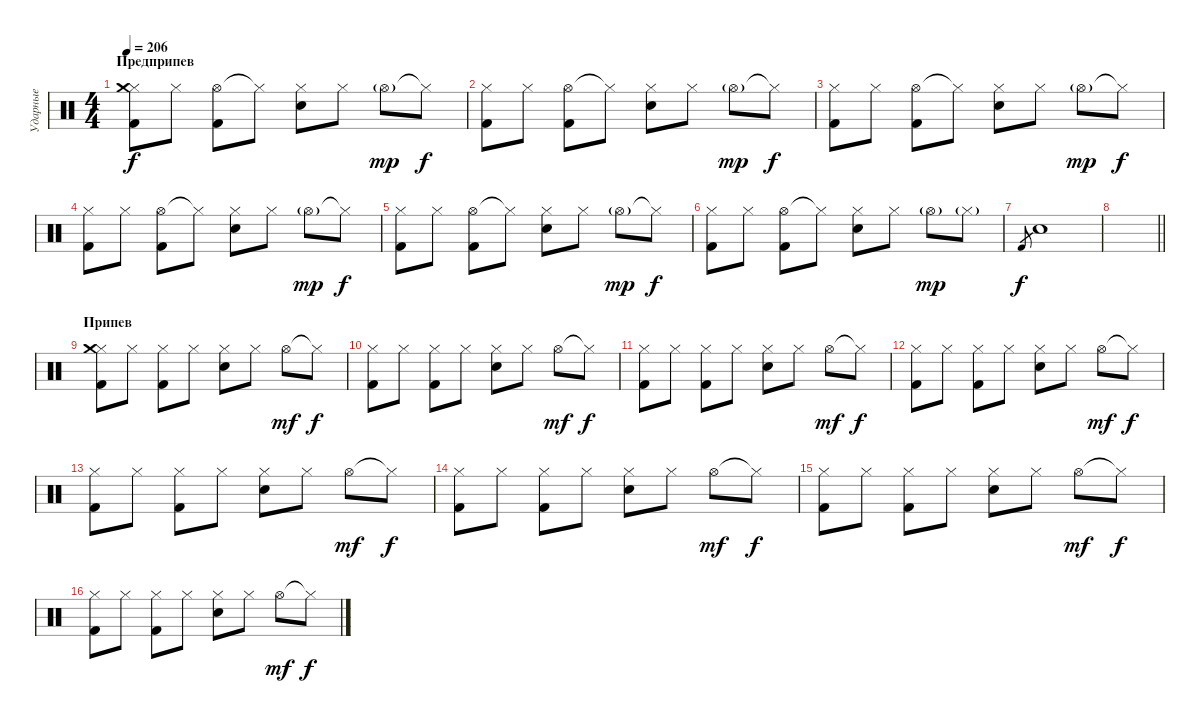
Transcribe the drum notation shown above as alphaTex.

\track ("Ударные" "Ударные") {instrument percussion}
\staff {score}
\articulation defaults
\ts (4 4)
\section ("" "Предприпев")
\tempo 206
\clef neutral
\ks c
("Hi-Hat (closed)" "Kick (hit) 2" "Crash medium (hit)").8{dy f} "Hi-Hat (closed)".8 ("Hi-Hat (open)" "Kick (hit) 2").8 "Hi-Hat (closed)"{t}.8 ("Hi-Hat (closed)" "Electric Snare (hit)").8 "Hi-Hat (closed)".8 "Hi-Hat (open)"{g}.8{dy mp} "Hi-Hat (closed)"{t}.8{dy f} |
("Hi-Hat (closed)" "Kick (hit) 2").8 "Hi-Hat (closed)".8 ("Hi-Hat (open)" "Kick (hit) 2").8 "Hi-Hat (closed)"{t}.8 ("Hi-Hat (closed)" "Electric Snare (hit)").8 "Hi-Hat (closed)".8 "Hi-Hat (open)"{g}.8{dy mp} "Hi-Hat (closed)"{t}.8{dy f} |
("Hi-Hat (closed)" "Kick (hit) 2").8 "Hi-Hat (closed)".8 ("Hi-Hat (open)" "Kick (hit) 2").8 "Hi-Hat (closed)"{t}.8 ("Hi-Hat (closed)" "Electric Snare (hit)").8 "Hi-Hat (closed)".8 "Hi-Hat (open)"{g}.8{dy mp} "Hi-Hat (closed)"{t}.8{dy f} |
("Hi-Hat (closed)" "Kick (hit) 2").8 "Hi-Hat (closed)".8 ("Hi-Hat (open)" "Kick (hit) 2").8 "Hi-Hat (closed)"{t}.8 ("Hi-Hat (closed)" "Electric Snare (hit)").8 "Hi-Hat (closed)".8 "Hi-Hat (open)"{g}.8{dy mp} "Hi-Hat (closed)"{t}.8{dy f} |
("Hi-Hat (closed)" "Kick (hit) 2").8 "Hi-Hat (closed)".8 ("Hi-Hat (open)" "Kick (hit) 2").8 "Hi-Hat (closed)"{t}.8 ("Hi-Hat (closed)" "Electric Snare (hit)").8 "Hi-Hat (closed)".8 "Hi-Hat (open)"{g}.8{dy mp} "Hi-Hat (closed)"{t}.8{dy f} |
("Hi-Hat (closed)" "Kick (hit) 2").8 "Hi-Hat (closed)".8 ("Hi-Hat (open)" "Kick (hit) 2").8 "Hi-Hat (closed)"{t}.8 ("Hi-Hat (closed)" "Electric Snare (hit)").8 "Hi-Hat (closed)".8 "Hi-Hat (open)"{g}.8{dy mp} "Hi-Hat (closed)"{g}.8 |
"Kick (hit) 2".8{gr dy f} "Electric Snare (hit)".1 |
\barLineRight lightlight
|
\section ("" "Припев")
("Hi-Hat (closed)" "Kick (hit) 2" "Crash medium (hit)").8 "Hi-Hat (closed)".8 ("Hi-Hat (closed)" "Kick (hit) 2").8 "Hi-Hat (closed)".8 ("Hi-Hat (closed)" "Electric Snare (hit)").8 "Hi-Hat (closed)".8 "Hi-Hat (open)".8{dy mf} "Hi-Hat (closed)"{t}.8{dy f} |
("Hi-Hat (closed)" "Kick (hit) 2").8 "Hi-Hat (closed)".8 ("Hi-Hat (closed)" "Kick (hit) 2").8 "Hi-Hat (closed)".8 ("Hi-Hat (closed)" "Electric Snare (hit)").8 "Hi-Hat (closed)".8 "Hi-Hat (open)".8{dy mf} "Hi-Hat (closed)"{t}.8{dy f} |
("Hi-Hat (closed)" "Kick (hit) 2").8 "Hi-Hat (closed)".8 ("Hi-Hat (closed)" "Kick (hit) 2").8 "Hi-Hat (closed)".8 ("Hi-Hat (closed)" "Electric Snare (hit)").8 "Hi-Hat (closed)".8 "Hi-Hat (open)".8{dy mf} "Hi-Hat (closed)"{t}.8{dy f} |
("Hi-Hat (closed)" "Kick (hit) 2").8 "Hi-Hat (closed)".8 ("Hi-Hat (closed)" "Kick (hit) 2").8 "Hi-Hat (closed)".8 ("Hi-Hat (closed)" "Electric Snare (hit)").8 "Hi-Hat (closed)".8 "Hi-Hat (open)".8{dy mf} "Hi-Hat (closed)"{t}.8{dy f} |
("Hi-Hat (closed)" "Kick (hit) 2").8 "Hi-Hat (closed)".8 ("Hi-Hat (closed)" "Kick (hit) 2").8 "Hi-Hat (closed)".8 ("Hi-Hat (closed)" "Electric Snare (hit)").8 "Hi-Hat (closed)".8 "Hi-Hat (open)".8{dy mf} "Hi-Hat (closed)"{t}.8{dy f} |
("Hi-Hat (closed)" "Kick (hit) 2").8 "Hi-Hat (closed)".8 ("Hi-Hat (closed)" "Kick (hit) 2").8 "Hi-Hat (closed)".8 ("Hi-Hat (closed)" "Electric Snare (hit)").8 "Hi-Hat (closed)".8 "Hi-Hat (open)".8{dy mf} "Hi-Hat (closed)"{t}.8{dy f} |
("Hi-Hat (closed)" "Kick (hit) 2").8 "Hi-Hat (closed)".8 ("Hi-Hat (closed)" "Kick (hit) 2").8 "Hi-Hat (closed)".8 ("Hi-Hat (closed)" "Electric Snare (hit)").8 "Hi-Hat (closed)".8 "Hi-Hat (open)".8{dy mf} "Hi-Hat (closed)"{t}.8{dy f} |
("Hi-Hat (closed)" "Kick (hit) 2").8 "Hi-Hat (closed)".8 ("Hi-Hat (closed)" "Kick (hit) 2").8 "Hi-Hat (closed)".8 ("Hi-Hat (closed)" "Electric Snare (hit)").8 "Hi-Hat (closed)".8 "Hi-Hat (open)".8{dy mf} "Hi-Hat (closed)"{t}.8{dy f}
